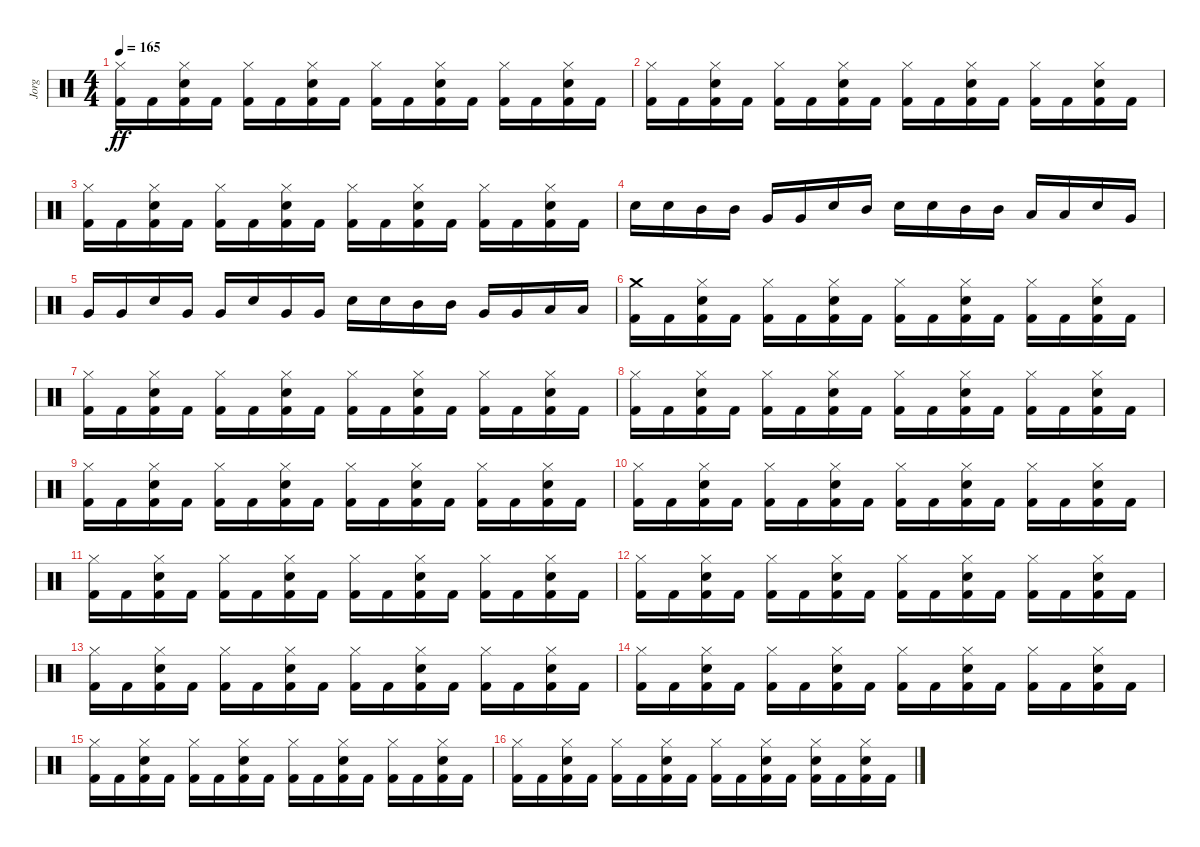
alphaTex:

\track ("Jorg" "Jorg") {instrument percussion}
\staff {score}
\articulation defaults
\ts (4 4)
\tempo 165
\clef neutral
\ks c
("Hi-Hat (closed)" "Kick (hit) 2").16{dy ff} "Kick (hit) 2".16 ("Hi-Hat (closed)" "Electric Snare (hit)" "Kick (hit) 2").16 "Kick (hit) 2".16 ("Hi-Hat (closed)" "Kick (hit) 2").16 "Kick (hit) 2".16 ("Hi-Hat (closed)" "Electric Snare (hit)" "Kick (hit) 2").16 "Kick (hit) 2".16 ("Hi-Hat (closed)" "Kick (hit) 2").16 "Kick (hit) 2".16 ("Hi-Hat (closed)" "Electric Snare (hit)" "Kick (hit) 2").16 "Kick (hit) 2".16 ("Hi-Hat (closed)" "Kick (hit) 2").16 "Kick (hit) 2".16 ("Hi-Hat (closed)" "Electric Snare (hit)" "Kick (hit) 2").16 "Kick (hit) 2".16 |
("Hi-Hat (closed)" "Kick (hit) 2").16 "Kick (hit) 2".16 ("Hi-Hat (closed)" "Electric Snare (hit)" "Kick (hit) 2").16 "Kick (hit) 2".16 ("Hi-Hat (closed)" "Kick (hit) 2").16 "Kick (hit) 2".16 ("Hi-Hat (closed)" "Electric Snare (hit)" "Kick (hit) 2").16 "Kick (hit) 2".16 ("Hi-Hat (closed)" "Kick (hit) 2").16 "Kick (hit) 2".16 ("Hi-Hat (closed)" "Electric Snare (hit)" "Kick (hit) 2").16 "Kick (hit) 2".16 ("Hi-Hat (closed)" "Kick (hit) 2").16 "Kick (hit) 2".16 ("Hi-Hat (closed)" "Electric Snare (hit)" "Kick (hit) 2").16 "Kick (hit) 2".16 |
("Hi-Hat (closed)" "Kick (hit) 2").16 "Kick (hit) 2".16 ("Hi-Hat (closed)" "Electric Snare (hit)" "Kick (hit) 2").16 "Kick (hit) 2".16 ("Hi-Hat (closed)" "Kick (hit) 2").16 "Kick (hit) 2".16 ("Hi-Hat (closed)" "Electric Snare (hit)" "Kick (hit) 2").16 "Kick (hit) 2".16 ("Hi-Hat (closed)" "Kick (hit) 2").16 "Kick (hit) 2".16 ("Hi-Hat (closed)" "Electric Snare (hit)" "Kick (hit) 2").16 "Kick (hit) 2".16 ("Hi-Hat (closed)" "Kick (hit) 2").16 "Kick (hit) 2".16 ("Hi-Hat (closed)" "Electric Snare (hit)" "Kick (hit) 2").16 "Kick (hit) 2".16 |
"Electric Snare (hit)".16 "Electric Snare (hit)".16 "Mid Tom (hit)".16 "Mid Tom (hit)".16 "Very Low Tom (hit)".16 "Very Low Tom (hit)".16 "Electric Snare (hit)".16 "Mid Tom (hit)".16 "Electric Snare (hit)".16 "Electric Snare (hit)".16 "Mid Tom (hit)".16 "Mid Tom (hit)".16 "Low Tom (hit)".16 "Low Tom (hit)".16 "Electric Snare (hit)".16 "Very Low Tom (hit)".16 |
"Very Low Tom (hit)".16 "Very Low Tom (hit)".16 "Electric Snare (hit)".16 "Very Low Tom (hit)".16 "Very Low Tom (hit)".16 "Electric Snare (hit)".16 "Very Low Tom (hit)".16 "Very Low Tom (hit)".16 "Electric Snare (hit)".16 "Electric Snare (hit)".16 "Mid Tom (hit)".16 "Mid Tom (hit)".16 "Very Low Tom (hit)".16 "Very Low Tom (hit)".16 "Low Floor Tom (hit)".16 "Low Floor Tom (hit)".16 |
("Crash medium (hit)" "Kick (hit) 2").16 "Kick (hit) 2".16 ("Hi-Hat (closed)" "Electric Snare (hit)" "Kick (hit) 2").16 "Kick (hit) 2".16 ("Hi-Hat (closed)" "Kick (hit) 2").16 "Kick (hit) 2".16 ("Hi-Hat (closed)" "Electric Snare (hit)" "Kick (hit) 2").16 "Kick (hit) 2".16 ("Hi-Hat (closed)" "Kick (hit) 2").16 "Kick (hit) 2".16 ("Hi-Hat (closed)" "Electric Snare (hit)" "Kick (hit) 2").16 "Kick (hit) 2".16 ("Hi-Hat (closed)" "Kick (hit) 2").16 "Kick (hit) 2".16 ("Hi-Hat (closed)" "Electric Snare (hit)" "Kick (hit) 2").16 "Kick (hit) 2".16 |
("Hi-Hat (closed)" "Kick (hit) 2").16 "Kick (hit) 2".16 ("Hi-Hat (closed)" "Electric Snare (hit)" "Kick (hit) 2").16 "Kick (hit) 2".16 ("Hi-Hat (closed)" "Kick (hit) 2").16 "Kick (hit) 2".16 ("Hi-Hat (closed)" "Electric Snare (hit)" "Kick (hit) 2").16 "Kick (hit) 2".16 ("Hi-Hat (closed)" "Kick (hit) 2").16 "Kick (hit) 2".16 ("Hi-Hat (closed)" "Electric Snare (hit)" "Kick (hit) 2").16 "Kick (hit) 2".16 ("Hi-Hat (closed)" "Kick (hit) 2").16 "Kick (hit) 2".16 ("Hi-Hat (closed)" "Electric Snare (hit)" "Kick (hit) 2").16 "Kick (hit) 2".16 |
("Hi-Hat (closed)" "Kick (hit) 2").16 "Kick (hit) 2".16 ("Hi-Hat (closed)" "Electric Snare (hit)" "Kick (hit) 2").16 "Kick (hit) 2".16 ("Hi-Hat (closed)" "Kick (hit) 2").16 "Kick (hit) 2".16 ("Hi-Hat (closed)" "Electric Snare (hit)" "Kick (hit) 2").16 "Kick (hit) 2".16 ("Hi-Hat (closed)" "Kick (hit) 2").16 "Kick (hit) 2".16 ("Hi-Hat (closed)" "Electric Snare (hit)" "Kick (hit) 2").16 "Kick (hit) 2".16 ("Hi-Hat (closed)" "Kick (hit) 2").16 "Kick (hit) 2".16 ("Hi-Hat (closed)" "Electric Snare (hit)" "Kick (hit) 2").16 "Kick (hit) 2".16 |
("Hi-Hat (closed)" "Kick (hit) 2").16 "Kick (hit) 2".16 ("Hi-Hat (closed)" "Electric Snare (hit)" "Kick (hit) 2").16 "Kick (hit) 2".16 ("Hi-Hat (closed)" "Kick (hit) 2").16 "Kick (hit) 2".16 ("Hi-Hat (closed)" "Electric Snare (hit)" "Kick (hit) 2").16 "Kick (hit) 2".16 ("Hi-Hat (closed)" "Kick (hit) 2").16 "Kick (hit) 2".16 ("Hi-Hat (closed)" "Electric Snare (hit)" "Kick (hit) 2").16 "Kick (hit) 2".16 ("Hi-Hat (closed)" "Kick (hit) 2").16 "Kick (hit) 2".16 ("Hi-Hat (closed)" "Electric Snare (hit)" "Kick (hit) 2").16 "Kick (hit) 2".16 |
("Hi-Hat (closed)" "Kick (hit) 2").16 "Kick (hit) 2".16 ("Hi-Hat (closed)" "Electric Snare (hit)" "Kick (hit) 2").16 "Kick (hit) 2".16 ("Hi-Hat (closed)" "Kick (hit) 2").16 "Kick (hit) 2".16 ("Hi-Hat (closed)" "Electric Snare (hit)" "Kick (hit) 2").16 "Kick (hit) 2".16 ("Hi-Hat (closed)" "Kick (hit) 2").16 "Kick (hit) 2".16 ("Hi-Hat (closed)" "Electric Snare (hit)" "Kick (hit) 2").16 "Kick (hit) 2".16 ("Hi-Hat (closed)" "Kick (hit) 2").16 "Kick (hit) 2".16 ("Hi-Hat (closed)" "Electric Snare (hit)" "Kick (hit) 2").16 "Kick (hit) 2".16 |
("Hi-Hat (closed)" "Kick (hit) 2").16 "Kick (hit) 2".16 ("Hi-Hat (closed)" "Electric Snare (hit)" "Kick (hit) 2").16 "Kick (hit) 2".16 ("Hi-Hat (closed)" "Kick (hit) 2").16 "Kick (hit) 2".16 ("Hi-Hat (closed)" "Electric Snare (hit)" "Kick (hit) 2").16 "Kick (hit) 2".16 ("Hi-Hat (closed)" "Kick (hit) 2").16 "Kick (hit) 2".16 ("Hi-Hat (closed)" "Electric Snare (hit)" "Kick (hit) 2").16 "Kick (hit) 2".16 ("Hi-Hat (closed)" "Kick (hit) 2").16 "Kick (hit) 2".16 ("Hi-Hat (closed)" "Electric Snare (hit)" "Kick (hit) 2").16 "Kick (hit) 2".16 |
("Hi-Hat (closed)" "Kick (hit) 2").16 "Kick (hit) 2".16 ("Hi-Hat (closed)" "Electric Snare (hit)" "Kick (hit) 2").16 "Kick (hit) 2".16 ("Hi-Hat (closed)" "Kick (hit) 2").16 "Kick (hit) 2".16 ("Hi-Hat (closed)" "Electric Snare (hit)" "Kick (hit) 2").16 "Kick (hit) 2".16 ("Hi-Hat (closed)" "Kick (hit) 2").16 "Kick (hit) 2".16 ("Hi-Hat (closed)" "Electric Snare (hit)" "Kick (hit) 2").16 "Kick (hit) 2".16 ("Hi-Hat (closed)" "Kick (hit) 2").16 "Kick (hit) 2".16 ("Hi-Hat (closed)" "Electric Snare (hit)" "Kick (hit) 2").16 "Kick (hit) 2".16 |
("Hi-Hat (closed)" "Kick (hit) 2").16 "Kick (hit) 2".16 ("Hi-Hat (closed)" "Electric Snare (hit)" "Kick (hit) 2").16 "Kick (hit) 2".16 ("Hi-Hat (closed)" "Kick (hit) 2").16 "Kick (hit) 2".16 ("Hi-Hat (closed)" "Electric Snare (hit)" "Kick (hit) 2").16 "Kick (hit) 2".16 ("Hi-Hat (closed)" "Kick (hit) 2").16 "Kick (hit) 2".16 ("Hi-Hat (closed)" "Electric Snare (hit)" "Kick (hit) 2").16 "Kick (hit) 2".16 ("Hi-Hat (closed)" "Kick (hit) 2").16 "Kick (hit) 2".16 ("Hi-Hat (closed)" "Electric Snare (hit)" "Kick (hit) 2").16 "Kick (hit) 2".16 |
("Hi-Hat (closed)" "Kick (hit) 2").16 "Kick (hit) 2".16 ("Hi-Hat (closed)" "Electric Snare (hit)" "Kick (hit) 2").16 "Kick (hit) 2".16 ("Hi-Hat (closed)" "Kick (hit) 2").16 "Kick (hit) 2".16 ("Hi-Hat (closed)" "Electric Snare (hit)" "Kick (hit) 2").16 "Kick (hit) 2".16 ("Hi-Hat (closed)" "Kick (hit) 2").16 "Kick (hit) 2".16 ("Hi-Hat (closed)" "Electric Snare (hit)" "Kick (hit) 2").16 "Kick (hit) 2".16 ("Hi-Hat (closed)" "Kick (hit) 2").16 "Kick (hit) 2".16 ("Hi-Hat (closed)" "Electric Snare (hit)" "Kick (hit) 2").16 "Kick (hit) 2".16 |
("Hi-Hat (closed)" "Kick (hit) 2").16 "Kick (hit) 2".16 ("Hi-Hat (closed)" "Electric Snare (hit)" "Kick (hit) 2").16 "Kick (hit) 2".16 ("Hi-Hat (closed)" "Kick (hit) 2").16 "Kick (hit) 2".16 ("Hi-Hat (closed)" "Electric Snare (hit)" "Kick (hit) 2").16 "Kick (hit) 2".16 ("Hi-Hat (closed)" "Kick (hit) 2").16 "Kick (hit) 2".16 ("Hi-Hat (closed)" "Electric Snare (hit)" "Kick (hit) 2").16 "Kick (hit) 2".16 ("Hi-Hat (closed)" "Kick (hit) 2").16 "Kick (hit) 2".16 ("Hi-Hat (closed)" "Electric Snare (hit)" "Kick (hit) 2").16 "Kick (hit) 2".16 |
("Hi-Hat (closed)" "Kick (hit) 2").16 "Kick (hit) 2".16 ("Hi-Hat (closed)" "Electric Snare (hit)" "Kick (hit) 2").16 "Kick (hit) 2".16 ("Hi-Hat (closed)" "Kick (hit) 2").16 "Kick (hit) 2".16 ("Hi-Hat (closed)" "Electric Snare (hit)" "Kick (hit) 2").16 "Kick (hit) 2".16 ("Hi-Hat (closed)" "Kick (hit) 2").16 "Kick (hit) 2".16 ("Hi-Hat (closed)" "Electric Snare (hit)" "Kick (hit) 2").16 "Kick (hit) 2".16 ("Hi-Hat (closed)" "Electric Snare (hit)" "Kick (hit) 2").16 "Kick (hit) 2".16 ("Hi-Hat (closed)" "Electric Snare (hit)" "Kick (hit) 2").16 "Kick (hit) 2".16
